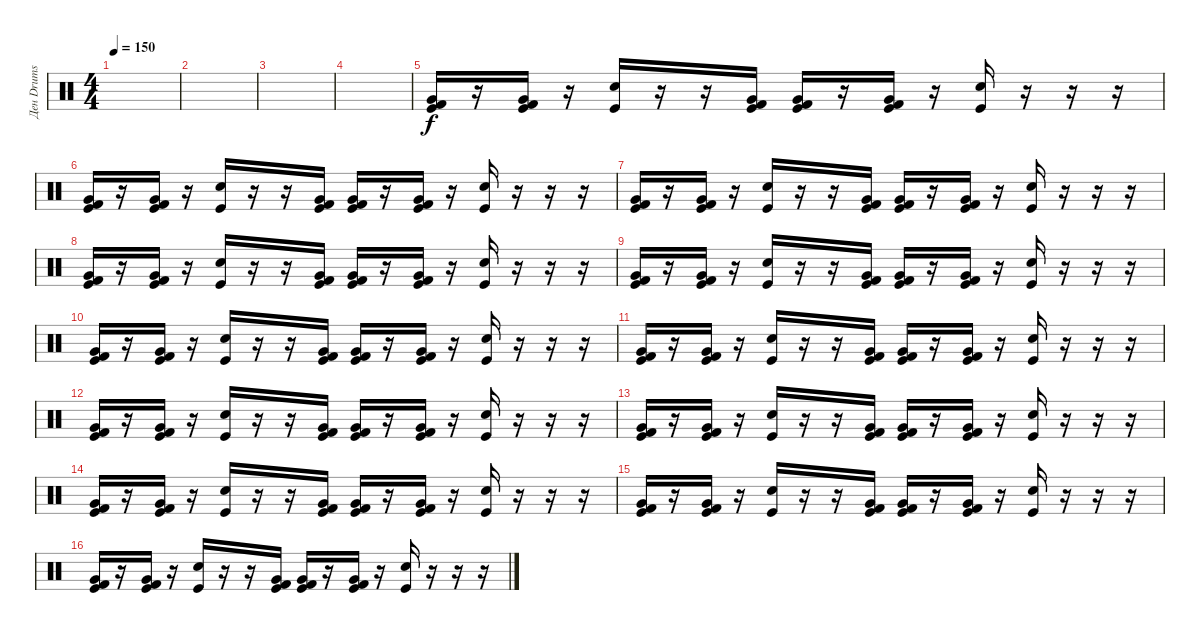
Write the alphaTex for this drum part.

\track ("Ден Drums" "Ден Drums") {instrument percussion}
\staff {score}
\articulation defaults
\ts (4 4)
\tempo 150
\clef neutral
\ks c
|
|
|
|
("Very Low Tom (hit)" "Kick (hit) 2" "Kick (hit)").16 r.16 ("Very Low Tom (hit)" "Kick (hit) 2" "Kick (hit)").16 r.16 ("Electric Snare (hit)" "Kick (hit)").16 r.16 r.16 ("Very Low Tom (hit)" "Kick (hit) 2" "Kick (hit)").16 ("Very Low Tom (hit)" "Kick (hit) 2" "Kick (hit)").16 r.16 ("Very Low Tom (hit)" "Kick (hit) 2" "Kick (hit)").16 r.16 ("Electric Snare (hit)" "Kick (hit)").16 r.16 r.16 r.16 |
("Very Low Tom (hit)" "Kick (hit) 2" "Kick (hit)").16 r.16 ("Very Low Tom (hit)" "Kick (hit) 2" "Kick (hit)").16 r.16 ("Electric Snare (hit)" "Kick (hit)").16 r.16 r.16 ("Very Low Tom (hit)" "Kick (hit) 2" "Kick (hit)").16 ("Very Low Tom (hit)" "Kick (hit) 2" "Kick (hit)").16 r.16 ("Very Low Tom (hit)" "Kick (hit) 2" "Kick (hit)").16 r.16 ("Electric Snare (hit)" "Kick (hit)").16 r.16 r.16 r.16 |
("Very Low Tom (hit)" "Kick (hit) 2" "Kick (hit)").16 r.16 ("Very Low Tom (hit)" "Kick (hit) 2" "Kick (hit)").16 r.16 ("Electric Snare (hit)" "Kick (hit)").16 r.16 r.16 ("Very Low Tom (hit)" "Kick (hit) 2" "Kick (hit)").16 ("Very Low Tom (hit)" "Kick (hit) 2" "Kick (hit)").16 r.16 ("Very Low Tom (hit)" "Kick (hit) 2" "Kick (hit)").16 r.16 ("Electric Snare (hit)" "Kick (hit)").16 r.16 r.16 r.16 |
("Very Low Tom (hit)" "Kick (hit) 2" "Kick (hit)").16 r.16 ("Very Low Tom (hit)" "Kick (hit) 2" "Kick (hit)").16 r.16 ("Electric Snare (hit)" "Kick (hit)").16 r.16 r.16 ("Very Low Tom (hit)" "Kick (hit) 2" "Kick (hit)").16 ("Very Low Tom (hit)" "Kick (hit) 2" "Kick (hit)").16 r.16 ("Very Low Tom (hit)" "Kick (hit) 2" "Kick (hit)").16 r.16 ("Electric Snare (hit)" "Kick (hit)").16 r.16 r.16 r.16 |
("Very Low Tom (hit)" "Kick (hit) 2" "Kick (hit)").16 r.16 ("Very Low Tom (hit)" "Kick (hit) 2" "Kick (hit)").16 r.16 ("Electric Snare (hit)" "Kick (hit)").16 r.16 r.16 ("Very Low Tom (hit)" "Kick (hit) 2" "Kick (hit)").16 ("Very Low Tom (hit)" "Kick (hit) 2" "Kick (hit)").16 r.16 ("Very Low Tom (hit)" "Kick (hit) 2" "Kick (hit)").16 r.16 ("Electric Snare (hit)" "Kick (hit)").16 r.16 r.16 r.16 |
("Very Low Tom (hit)" "Kick (hit) 2" "Kick (hit)").16 r.16 ("Very Low Tom (hit)" "Kick (hit) 2" "Kick (hit)").16 r.16 ("Electric Snare (hit)" "Kick (hit)").16 r.16 r.16 ("Very Low Tom (hit)" "Kick (hit) 2" "Kick (hit)").16 ("Very Low Tom (hit)" "Kick (hit) 2" "Kick (hit)").16 r.16 ("Very Low Tom (hit)" "Kick (hit) 2" "Kick (hit)").16 r.16 ("Electric Snare (hit)" "Kick (hit)").16 r.16 r.16 r.16 |
("Very Low Tom (hit)" "Kick (hit) 2" "Kick (hit)").16 r.16 ("Very Low Tom (hit)" "Kick (hit) 2" "Kick (hit)").16 r.16 ("Electric Snare (hit)" "Kick (hit)").16 r.16 r.16 ("Very Low Tom (hit)" "Kick (hit) 2" "Kick (hit)").16 ("Very Low Tom (hit)" "Kick (hit) 2" "Kick (hit)").16 r.16 ("Very Low Tom (hit)" "Kick (hit) 2" "Kick (hit)").16 r.16 ("Electric Snare (hit)" "Kick (hit)").16 r.16 r.16 r.16 |
("Very Low Tom (hit)" "Kick (hit) 2" "Kick (hit)").16 r.16 ("Very Low Tom (hit)" "Kick (hit) 2" "Kick (hit)").16 r.16 ("Electric Snare (hit)" "Kick (hit)").16 r.16 r.16 ("Very Low Tom (hit)" "Kick (hit) 2" "Kick (hit)").16 ("Very Low Tom (hit)" "Kick (hit) 2" "Kick (hit)").16 r.16 ("Very Low Tom (hit)" "Kick (hit) 2" "Kick (hit)").16 r.16 ("Electric Snare (hit)" "Kick (hit)").16 r.16 r.16 r.16 |
("Very Low Tom (hit)" "Kick (hit) 2" "Kick (hit)").16 r.16 ("Very Low Tom (hit)" "Kick (hit) 2" "Kick (hit)").16 r.16 ("Electric Snare (hit)" "Kick (hit)").16 r.16 r.16 ("Very Low Tom (hit)" "Kick (hit) 2" "Kick (hit)").16 ("Very Low Tom (hit)" "Kick (hit) 2" "Kick (hit)").16 r.16 ("Very Low Tom (hit)" "Kick (hit) 2" "Kick (hit)").16 r.16 ("Electric Snare (hit)" "Kick (hit)").16 r.16 r.16 r.16 |
("Very Low Tom (hit)" "Kick (hit) 2" "Kick (hit)").16 r.16 ("Very Low Tom (hit)" "Kick (hit) 2" "Kick (hit)").16 r.16 ("Electric Snare (hit)" "Kick (hit)").16 r.16 r.16 ("Very Low Tom (hit)" "Kick (hit) 2" "Kick (hit)").16 ("Very Low Tom (hit)" "Kick (hit) 2" "Kick (hit)").16 r.16 ("Very Low Tom (hit)" "Kick (hit) 2" "Kick (hit)").16 r.16 ("Electric Snare (hit)" "Kick (hit)").16 r.16 r.16 r.16 |
("Very Low Tom (hit)" "Kick (hit) 2" "Kick (hit)").16 r.16 ("Very Low Tom (hit)" "Kick (hit) 2" "Kick (hit)").16 r.16 ("Electric Snare (hit)" "Kick (hit)").16 r.16 r.16 ("Very Low Tom (hit)" "Kick (hit) 2" "Kick (hit)").16 ("Very Low Tom (hit)" "Kick (hit) 2" "Kick (hit)").16 r.16 ("Very Low Tom (hit)" "Kick (hit) 2" "Kick (hit)").16 r.16 ("Electric Snare (hit)" "Kick (hit)").16 r.16 r.16 r.16 |
("Very Low Tom (hit)" "Kick (hit) 2" "Kick (hit)").16 r.16 ("Very Low Tom (hit)" "Kick (hit) 2" "Kick (hit)").16 r.16 ("Electric Snare (hit)" "Kick (hit)").16 r.16 r.16 ("Very Low Tom (hit)" "Kick (hit) 2" "Kick (hit)").16 ("Very Low Tom (hit)" "Kick (hit) 2" "Kick (hit)").16 r.16 ("Very Low Tom (hit)" "Kick (hit) 2" "Kick (hit)").16 r.16 ("Electric Snare (hit)" "Kick (hit)").16 r.16 r.16 r.16
